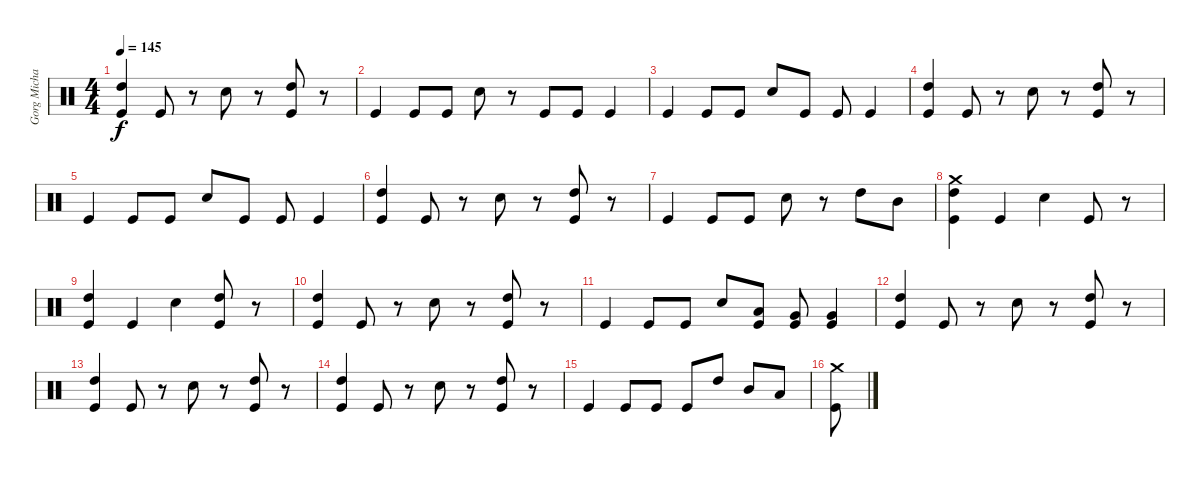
\track ("Gorg Michael" "Gorg Micha") {instrument percussion}
\staff {score}
\articulation defaults
\ts (4 4)
\tempo 145
\clef neutral
\ks c
("High Tom (hit)" "Kick (hit)").4{dy f} "Kick (hit)".8 r.8 "Snare (hit) 2".8 r.8 ("High Tom (hit)" "Kick (hit)").8 r.8 |
"Kick (hit)".4 "Kick (hit)".8 "Kick (hit)".8 "Snare (hit) 2".8 r.8 "Kick (hit)".8 "Kick (hit)".8 "Kick (hit)".4 |
"Kick (hit)".4 "Kick (hit)".8 "Kick (hit)".8 "Snare (hit) 2".8 "Kick (hit)".8 "Kick (hit)".8 "Kick (hit)".4 |
("High Tom (hit)" "Kick (hit)").4 "Kick (hit)".8 r.8 "Snare (hit) 2".8 r.8 ("High Tom (hit)" "Kick (hit)").8 r.8 |
"Kick (hit)".4 "Kick (hit)".8 "Kick (hit)".8 "Snare (hit) 2".8 "Kick (hit)".8 "Kick (hit)".8 "Kick (hit)".4 |
("High Tom (hit)" "Kick (hit)").4 "Kick (hit)".8 r.8 "Snare (hit) 2".8 r.8 ("High Tom (hit)" "Kick (hit)").8 r.8 |
"Kick (hit)".4 "Kick (hit)".8 "Kick (hit)".8 "Snare (hit) 2".8 r.8 "High Tom (hit)".8 "Mid Tom (hit)".8 |
("Crash medium (hit)" "High Tom (hit)" "Kick (hit)").4 "Kick (hit)".4 "Snare (hit) 2".4 "Kick (hit)".8 r.8 |
("High Tom (hit)" "Kick (hit)").4 "Kick (hit)".4 "Snare (hit) 2".4 ("High Tom (hit)" "Kick (hit)").8 r.8 |
("High Tom (hit)" "Kick (hit)").4 "Kick (hit)".8 r.8 "Snare (hit) 2".8 r.8 ("High Tom (hit)" "Kick (hit)").8 r.8 |
"Kick (hit)".4 "Kick (hit)".8 "Kick (hit)".8 "Snare (hit) 2".8 ("Low Tom (hit)" "Kick (hit)").8 ("Very Low Tom (hit)" "Kick (hit)").8 ("Very Low Tom (hit)" "Kick (hit)").4 |
("High Tom (hit)" "Kick (hit)").4 "Kick (hit)".8 r.8 "Snare (hit) 2".8 r.8 ("High Tom (hit)" "Kick (hit)").8 r.8 |
("High Tom (hit)" "Kick (hit)").4 "Kick (hit)".8 r.8 "Snare (hit) 2".8 r.8 ("High Tom (hit)" "Kick (hit)").8 r.8 |
("High Tom (hit)" "Kick (hit)").4 "Kick (hit)".8 r.8 "Snare (hit) 2".8 r.8 ("High Tom (hit)" "Kick (hit)").8 r.8 |
"Kick (hit)".4 "Kick (hit)".8 "Kick (hit)".8 "Kick (hit)".8 "High Tom (hit)".8 "Mid Tom (hit)".8 "Low Tom (hit)".8 |
("Crash medium (hit)" "Kick (hit)").8
